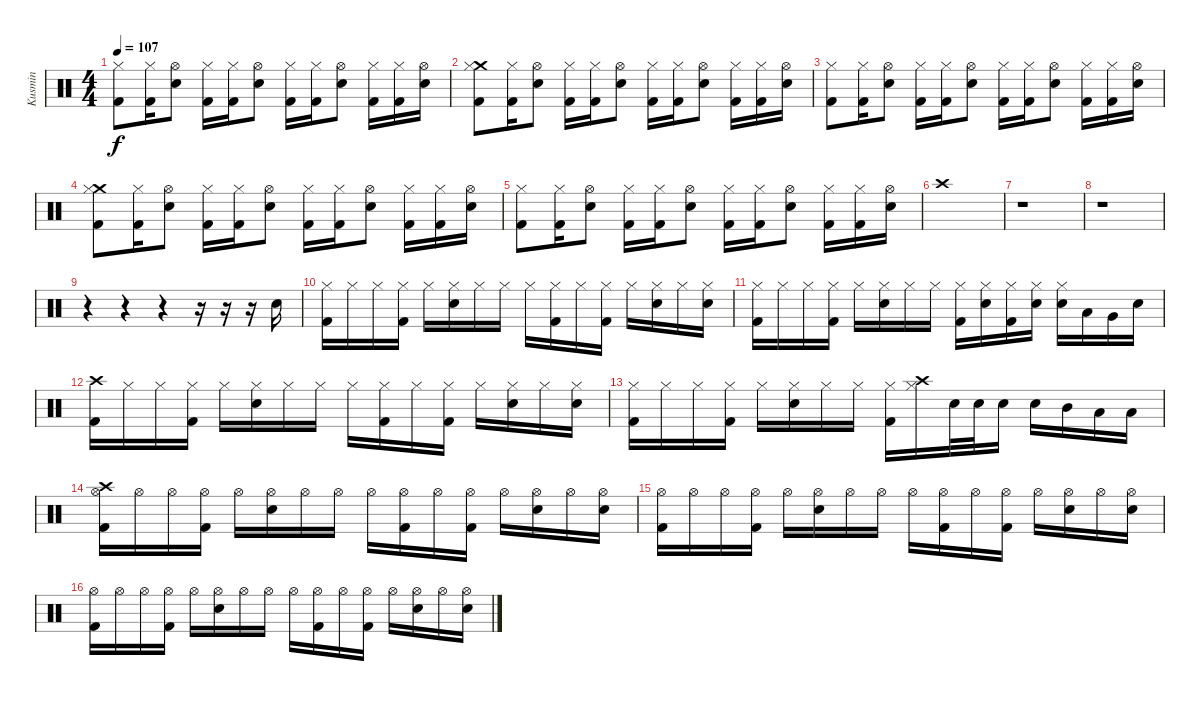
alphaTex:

\track ("Kusmin" "Kusmin") {instrument percussion}
\staff {score}
\articulation defaults
\ts (4 4)
\tempo 107
\clef neutral
\ks c
("Hi-Hat (closed)" "Kick (hit) 2").8{dy f} ("Hi-Hat (closed)" "Kick (hit) 2").16 ("Hi-Hat (open)" "Snare (hit) 2").8 ("Hi-Hat (closed)" "Kick (hit) 2").16 ("Hi-Hat (closed)" "Kick (hit) 2").16 ("Hi-Hat (open)" "Snare (hit) 2").8 ("Hi-Hat (closed)" "Kick (hit) 2").16 ("Hi-Hat (closed)" "Kick (hit) 2").16 ("Hi-Hat (open)" "Snare (hit) 2").8 ("Hi-Hat (closed)" "Kick (hit) 2").16 ("Hi-Hat (closed)" "Kick (hit) 2").16 ("Hi-Hat (open)" "Snare (hit) 2").16 |
("Crash medium (hit)" "Hi-Hat (closed)" "Kick (hit) 2").8 ("Hi-Hat (closed)" "Kick (hit) 2").16 ("Hi-Hat (open)" "Snare (hit) 2").8 ("Hi-Hat (closed)" "Kick (hit) 2").16 ("Hi-Hat (closed)" "Kick (hit) 2").16 ("Hi-Hat (open)" "Snare (hit) 2").8 ("Hi-Hat (closed)" "Kick (hit) 2").16 ("Hi-Hat (closed)" "Kick (hit) 2").16 ("Hi-Hat (open)" "Snare (hit) 2").8 ("Hi-Hat (closed)" "Kick (hit) 2").16 ("Hi-Hat (closed)" "Kick (hit) 2").16 ("Hi-Hat (open)" "Snare (hit) 2").16 |
("Hi-Hat (closed)" "Kick (hit) 2").8 ("Hi-Hat (closed)" "Kick (hit) 2").16 ("Hi-Hat (open)" "Snare (hit) 2").8 ("Hi-Hat (closed)" "Kick (hit) 2").16 ("Hi-Hat (closed)" "Kick (hit) 2").16 ("Hi-Hat (open)" "Snare (hit) 2").8 ("Hi-Hat (closed)" "Kick (hit) 2").16 ("Hi-Hat (closed)" "Kick (hit) 2").16 ("Hi-Hat (open)" "Snare (hit) 2").8 ("Hi-Hat (closed)" "Kick (hit) 2").16 ("Hi-Hat (closed)" "Kick (hit) 2").16 ("Hi-Hat (open)" "Snare (hit) 2").16 |
("Crash medium (hit)" "Hi-Hat (closed)" "Kick (hit) 2").8 ("Hi-Hat (closed)" "Kick (hit) 2").16 ("Hi-Hat (open)" "Snare (hit) 2").8 ("Hi-Hat (closed)" "Kick (hit) 2").16 ("Hi-Hat (closed)" "Kick (hit) 2").16 ("Hi-Hat (open)" "Snare (hit) 2").8 ("Hi-Hat (closed)" "Kick (hit) 2").16 ("Hi-Hat (closed)" "Kick (hit) 2").16 ("Hi-Hat (open)" "Snare (hit) 2").8 ("Hi-Hat (closed)" "Kick (hit) 2").16 ("Hi-Hat (closed)" "Kick (hit) 2").16 ("Hi-Hat (open)" "Snare (hit) 2").16 |
("Hi-Hat (closed)" "Kick (hit) 2").8 ("Hi-Hat (closed)" "Kick (hit) 2").16 ("Hi-Hat (open)" "Snare (hit) 2").8 ("Hi-Hat (closed)" "Kick (hit) 2").16 ("Hi-Hat (closed)" "Kick (hit) 2").16 ("Hi-Hat (open)" "Snare (hit) 2").8 ("Hi-Hat (closed)" "Kick (hit) 2").16 ("Hi-Hat (closed)" "Kick (hit) 2").16 ("Hi-Hat (open)" "Snare (hit) 2").8 ("Hi-Hat (closed)" "Kick (hit) 2").16 ("Hi-Hat (closed)" "Kick (hit) 2").16 ("Hi-Hat (open)" "Snare (hit) 2").16 |
"Crash high (hit)".1 |
r.1 |
r.1 |
r.4 r.4 r.4 r.16 r.16 r.16 "Snare (hit) 2".16 |
("Hi-Hat (closed)" "Kick (hit) 2").16 "Hi-Hat (closed)".16 "Hi-Hat (closed)".16 ("Hi-Hat (closed)" "Kick (hit) 2").16 "Hi-Hat (closed)".16 ("Hi-Hat (closed)" "Snare (hit) 2").16 "Hi-Hat (closed)".16 "Hi-Hat (closed)".16 "Hi-Hat (closed)".16 ("Hi-Hat (closed)" "Kick (hit) 2").16 "Hi-Hat (closed)".16 ("Hi-Hat (closed)" "Kick (hit) 2").16 "Hi-Hat (closed)".16 ("Hi-Hat (closed)" "Snare (hit) 2").16 "Hi-Hat (closed)".16 ("Hi-Hat (closed)" "Snare (hit) 2").16 |
("Hi-Hat (closed)" "Kick (hit) 2").16 "Hi-Hat (closed)".16 "Hi-Hat (closed)".16 ("Hi-Hat (closed)" "Kick (hit) 2").16 "Hi-Hat (closed)".16 ("Hi-Hat (closed)" "Snare (hit) 2").16 "Hi-Hat (closed)".16 "Hi-Hat (closed)".16 ("Hi-Hat (closed)" "Kick (hit) 2").16 ("Hi-Hat (closed)" "Snare (hit) 2").16 ("Hi-Hat (closed)" "Kick (hit) 2").16 ("Hi-Hat (closed)" "Snare (hit) 2").16 ("Hi-Hat (closed)" "Snare (hit) 2").16 "Low Tom (hit)".16 "Very Low Tom (hit)".16 "Snare (hit) 2".16 |
("Crash high (hit)" "Kick (hit) 2").16 "Hi-Hat (closed)".16 "Hi-Hat (closed)".16 ("Hi-Hat (closed)" "Kick (hit) 2").16 "Hi-Hat (closed)".16 ("Hi-Hat (closed)" "Snare (hit) 2").16 "Hi-Hat (closed)".16 "Hi-Hat (closed)".16 "Hi-Hat (closed)".16 ("Hi-Hat (closed)" "Kick (hit) 2").16 "Hi-Hat (closed)".16 ("Hi-Hat (closed)" "Kick (hit) 2").16 "Hi-Hat (closed)".16 ("Hi-Hat (closed)" "Snare (hit) 2").16 "Hi-Hat (closed)".16 ("Hi-Hat (closed)" "Snare (hit) 2").16 |
("Hi-Hat (closed)" "Kick (hit) 2").16 "Hi-Hat (closed)".16 "Hi-Hat (closed)".16 ("Hi-Hat (closed)" "Kick (hit) 2").16 "Hi-Hat (closed)".16 ("Hi-Hat (closed)" "Snare (hit) 2").16 "Hi-Hat (closed)".16 "Hi-Hat (closed)".16 ("Hi-Hat (closed)" "Kick (hit) 2").16 ("Crash high (hit)" "Hi-Hat (closed)").16 "Snare (hit) 2".32 "Snare (hit) 2".32 "Snare (hit) 2".16 "Snare (hit) 2".16 "Mid Tom (hit)".16 "Low Tom (hit)".16 "Low Floor Tom (hit)".16 |
("Crash high (hit)" "Hi-Hat (open)" "Kick (hit) 2").16 "Hi-Hat (open)".16 "Hi-Hat (open)".16 ("Hi-Hat (open)" "Kick (hit) 2").16 "Hi-Hat (open)".16 ("Hi-Hat (open)" "Snare (hit) 2").16 "Hi-Hat (open)".16 "Hi-Hat (open)".16 "Hi-Hat (open)".16 ("Hi-Hat (open)" "Kick (hit) 2").16 "Hi-Hat (open)".16 ("Hi-Hat (open)" "Kick (hit) 2").16 "Hi-Hat (open)".16 ("Hi-Hat (open)" "Snare (hit) 2").16 "Hi-Hat (open)".16 ("Hi-Hat (open)" "Snare (hit) 2").16 |
("Hi-Hat (open)" "Kick (hit) 2").16 "Hi-Hat (open)".16 "Hi-Hat (open)".16 ("Hi-Hat (open)" "Kick (hit) 2").16 "Hi-Hat (open)".16 ("Hi-Hat (open)" "Snare (hit) 2").16 "Hi-Hat (open)".16 "Hi-Hat (open)".16 "Hi-Hat (open)".16 ("Hi-Hat (open)" "Kick (hit) 2").16 "Hi-Hat (open)".16 ("Hi-Hat (open)" "Kick (hit) 2").16 "Hi-Hat (open)".16 ("Hi-Hat (open)" "Snare (hit) 2").16 "Hi-Hat (open)".16 ("Hi-Hat (open)" "Snare (hit) 2").16 |
("Hi-Hat (open)" "Kick (hit) 2").16 "Hi-Hat (open)".16 "Hi-Hat (open)".16 ("Hi-Hat (open)" "Kick (hit) 2").16 "Hi-Hat (open)".16 ("Hi-Hat (open)" "Snare (hit) 2").16 "Hi-Hat (open)".16 "Hi-Hat (open)".16 "Hi-Hat (open)".16 ("Hi-Hat (open)" "Kick (hit) 2").16 "Hi-Hat (open)".16 ("Hi-Hat (open)" "Kick (hit) 2").16 "Hi-Hat (open)".16 ("Hi-Hat (open)" "Snare (hit) 2").16 "Hi-Hat (open)".16 ("Hi-Hat (open)" "Snare (hit) 2").16
